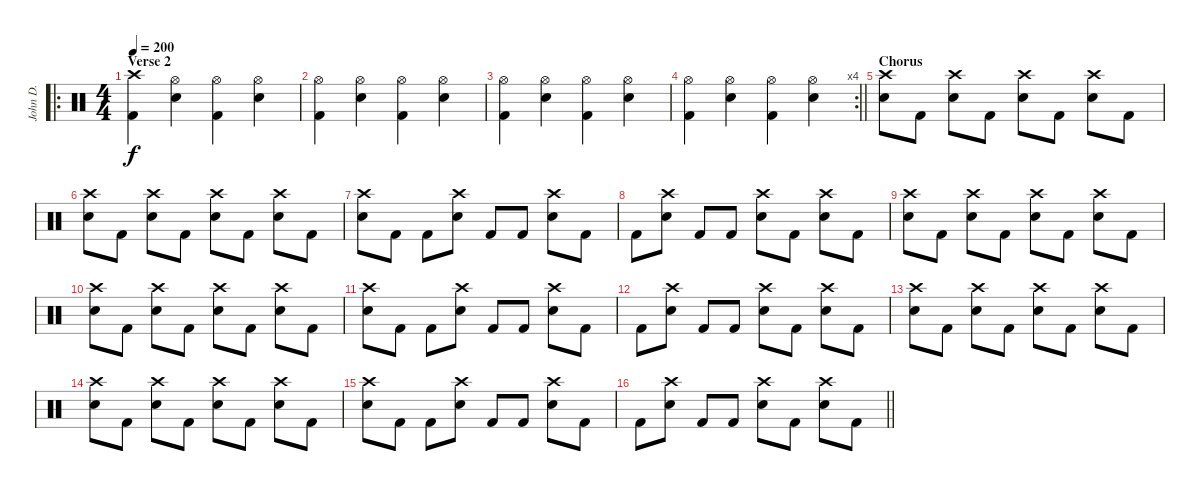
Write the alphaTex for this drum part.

\track ("John D." "John D.") {instrument percussion}
\staff {score}
\articulation defaults
\ro
\ts (4 4)
\section ("" "Verse 2")
\tempo 200
\clef neutral
\ks c
("Crash high (hit)" "Kick (hit) 2").4{dy f} ("Hi-Hat (open)" "Snare (hit) 2").4 ("Hi-Hat (open)" "Kick (hit) 2").4 ("Hi-Hat (open)" "Snare (hit) 2").4 |
("Hi-Hat (open)" "Kick (hit) 2").4 ("Hi-Hat (open)" "Snare (hit) 2").4 ("Hi-Hat (open)" "Kick (hit) 2").4 ("Hi-Hat (open)" "Snare (hit) 2").4 |
("Hi-Hat (open)" "Kick (hit) 2").4 ("Hi-Hat (open)" "Snare (hit) 2").4 ("Hi-Hat (open)" "Kick (hit) 2").4 ("Hi-Hat (open)" "Snare (hit) 2").4 |
\rc 4
\barLineRight lightlight
("Hi-Hat (open)" "Kick (hit) 2").4 ("Hi-Hat (open)" "Snare (hit) 2").4 ("Hi-Hat (open)" "Kick (hit) 2").4 ("Hi-Hat (open)" "Snare (hit) 2").4 |
\section ("" "Chorus")
("Crash high (hit)" "Snare (hit) 2").8 "Kick (hit) 2".8 ("Crash high (hit)" "Snare (hit) 2").8 "Kick (hit) 2".8 ("Crash high (hit)" "Snare (hit) 2").8 "Kick (hit) 2".8 ("Crash high (hit)" "Snare (hit) 2").8 "Kick (hit) 2".8 |
("Crash high (hit)" "Snare (hit) 2").8 "Kick (hit) 2".8 ("Crash high (hit)" "Snare (hit) 2").8 "Kick (hit) 2".8 ("Crash high (hit)" "Snare (hit) 2").8 "Kick (hit) 2".8 ("Crash high (hit)" "Snare (hit) 2").8 "Kick (hit) 2".8 |
("Crash high (hit)" "Snare (hit) 2").8 "Kick (hit) 2".8 "Kick (hit) 2".8 ("Crash high (hit)" "Snare (hit) 2").8 "Kick (hit) 2".8 "Kick (hit) 2".8 ("Crash high (hit)" "Snare (hit) 2").8 "Kick (hit) 2".8 |
"Kick (hit) 2".8 ("Crash high (hit)" "Snare (hit) 2").8 "Kick (hit) 2".8 "Kick (hit) 2".8 ("Crash high (hit)" "Snare (hit) 2").8 "Kick (hit) 2".8 ("Crash high (hit)" "Snare (hit) 2").8 "Kick (hit) 2".8 |
("Crash high (hit)" "Snare (hit) 2").8 "Kick (hit) 2".8 ("Crash high (hit)" "Snare (hit) 2").8 "Kick (hit) 2".8 ("Crash high (hit)" "Snare (hit) 2").8 "Kick (hit) 2".8 ("Crash high (hit)" "Snare (hit) 2").8 "Kick (hit) 2".8 |
("Crash high (hit)" "Snare (hit) 2").8 "Kick (hit) 2".8 ("Crash high (hit)" "Snare (hit) 2").8 "Kick (hit) 2".8 ("Crash high (hit)" "Snare (hit) 2").8 "Kick (hit) 2".8 ("Crash high (hit)" "Snare (hit) 2").8 "Kick (hit) 2".8 |
("Crash high (hit)" "Snare (hit) 2").8 "Kick (hit) 2".8 "Kick (hit) 2".8 ("Crash high (hit)" "Snare (hit) 2").8 "Kick (hit) 2".8 "Kick (hit) 2".8 ("Crash high (hit)" "Snare (hit) 2").8 "Kick (hit) 2".8 |
"Kick (hit) 2".8 ("Crash high (hit)" "Snare (hit) 2").8 "Kick (hit) 2".8 "Kick (hit) 2".8 ("Crash high (hit)" "Snare (hit) 2").8 "Kick (hit) 2".8 ("Crash high (hit)" "Snare (hit) 2").8 "Kick (hit) 2".8 |
("Crash high (hit)" "Snare (hit) 2").8 "Kick (hit) 2".8 ("Crash high (hit)" "Snare (hit) 2").8 "Kick (hit) 2".8 ("Crash high (hit)" "Snare (hit) 2").8 "Kick (hit) 2".8 ("Crash high (hit)" "Snare (hit) 2").8 "Kick (hit) 2".8 |
("Crash high (hit)" "Snare (hit) 2").8 "Kick (hit) 2".8 ("Crash high (hit)" "Snare (hit) 2").8 "Kick (hit) 2".8 ("Crash high (hit)" "Snare (hit) 2").8 "Kick (hit) 2".8 ("Crash high (hit)" "Snare (hit) 2").8 "Kick (hit) 2".8 |
("Crash high (hit)" "Snare (hit) 2").8 "Kick (hit) 2".8 "Kick (hit) 2".8 ("Crash high (hit)" "Snare (hit) 2").8 "Kick (hit) 2".8 "Kick (hit) 2".8 ("Crash high (hit)" "Snare (hit) 2").8 "Kick (hit) 2".8 |
\barLineRight lightlight "Kick (hit) 2".8
("Crash high (hit)" "Snare (hit) 2").8 "Kick (hit) 2".8 "Kick (hit) 2".8 ("Crash high (hit)" "Snare (hit) 2").8 "Kick (hit) 2".8 ("Crash high (hit)" "Snare (hit) 2").8 "Kick (hit) 2".8
